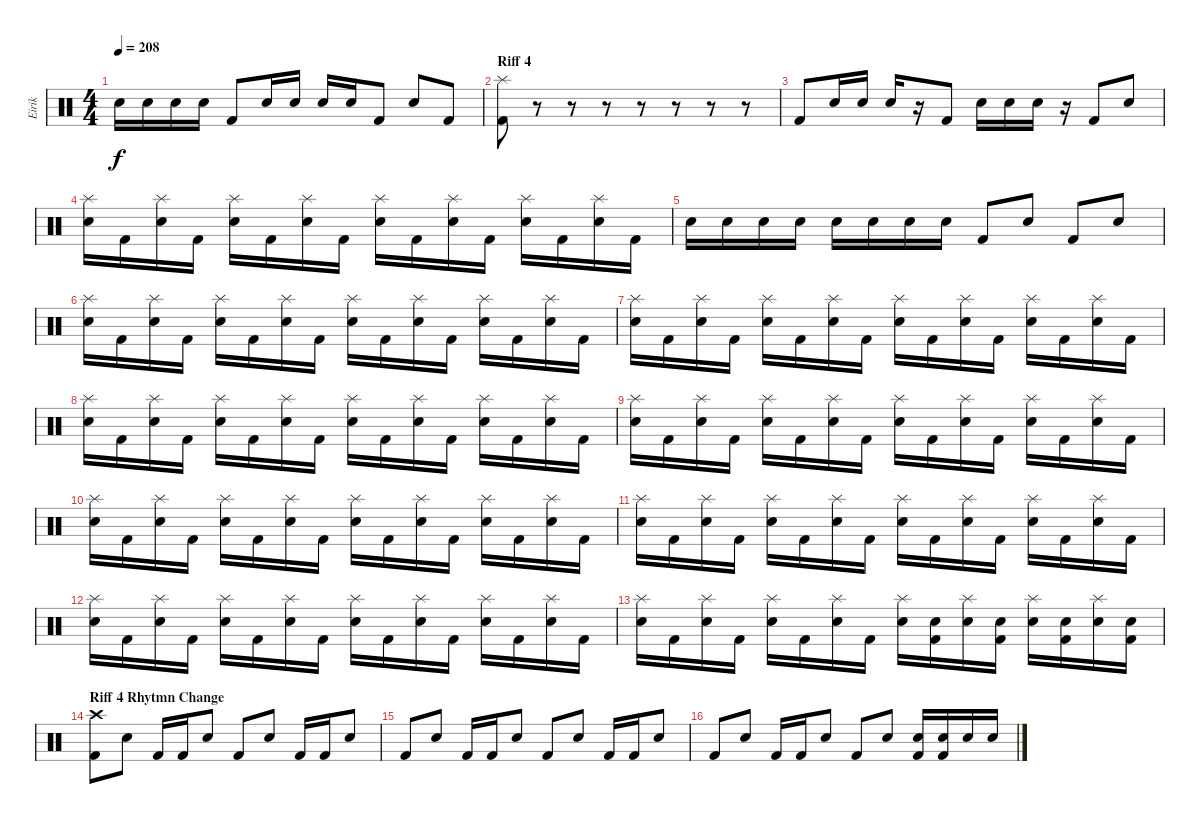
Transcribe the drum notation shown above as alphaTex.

\track ("Eirik" "Eirik") {instrument percussion}
\staff {score}
\articulation defaults
\ts (4 4)
\tempo 208
\clef neutral
\ks c "Snare (hit) 2".16{dy f} "Snare (hit) 2".16 "Snare (hit) 2".16 "Snare (hit) 2".16 "Kick (hit) 2".8 "Snare (hit) 2".16 "Snare (hit) 2".16 "Snare (hit) 2".16 "Snare (hit) 2".16 "Kick (hit) 2".8 "Snare (hit) 2".8 "Kick (hit) 2".8
|
\section ("" "Riff 4")
("Splash (hit)" "Kick (hit) 2").8 r.8 r.8 r.8 r.8 r.8 r.8 r.8 |
"Kick (hit) 2".8 "Snare (hit) 2".16 "Snare (hit) 2".16 "Snare (hit) 2".16 r.16 "Kick (hit) 2".8 "Snare (hit) 2".16 "Snare (hit) 2".16 "Snare (hit) 2".16 r.16 "Kick (hit) 2".8 "Snare (hit) 2".8 |
("Splash (hit)" "Snare (hit) 2").16 "Kick (hit) 2".16 ("Splash (hit)" "Snare (hit) 2").16 "Kick (hit) 2".16 ("Splash (hit)" "Snare (hit) 2").16 "Kick (hit) 2".16 ("Splash (hit)" "Snare (hit) 2").16 "Kick (hit) 2".16 ("Splash (hit)" "Snare (hit) 2").16 "Kick (hit) 2".16 ("Splash (hit)" "Snare (hit) 2").16 "Kick (hit) 2".16 ("Splash (hit)" "Snare (hit) 2").16 "Kick (hit) 2".16 ("Splash (hit)" "Snare (hit) 2").16 "Kick (hit) 2".16 |
"Snare (hit) 2".16 "Snare (hit) 2".16 "Snare (hit) 2".16 "Snare (hit) 2".16 "Snare (hit) 2".16 "Snare (hit) 2".16 "Snare (hit) 2".16 "Snare (hit) 2".16 "Kick (hit) 2".8 "Snare (hit) 2".8 "Kick (hit) 2".8 "Snare (hit) 2".8 |
("Splash (hit)" "Snare (hit) 2").16 "Kick (hit) 2".16 ("Splash (hit)" "Snare (hit) 2").16 "Kick (hit) 2".16 ("Splash (hit)" "Snare (hit) 2").16 "Kick (hit) 2".16 ("Splash (hit)" "Snare (hit) 2").16 "Kick (hit) 2".16 ("Splash (hit)" "Snare (hit) 2").16 "Kick (hit) 2".16 ("Splash (hit)" "Snare (hit) 2").16 "Kick (hit) 2".16 ("Splash (hit)" "Snare (hit) 2").16 "Kick (hit) 2".16 ("Splash (hit)" "Snare (hit) 2").16 "Kick (hit) 2".16 |
("Splash (hit)" "Snare (hit) 2").16 "Kick (hit) 2".16 ("Splash (hit)" "Snare (hit) 2").16 "Kick (hit) 2".16 ("Splash (hit)" "Snare (hit) 2").16 "Kick (hit) 2".16 ("Splash (hit)" "Snare (hit) 2").16 "Kick (hit) 2".16 ("Splash (hit)" "Snare (hit) 2").16 "Kick (hit) 2".16 ("Splash (hit)" "Snare (hit) 2").16 "Kick (hit) 2".16 ("Splash (hit)" "Snare (hit) 2").16 "Kick (hit) 2".16 ("Splash (hit)" "Snare (hit) 2").16 "Kick (hit) 2".16 |
("Splash (hit)" "Snare (hit) 2").16 "Kick (hit) 2".16 ("Splash (hit)" "Snare (hit) 2").16 "Kick (hit) 2".16 ("Splash (hit)" "Snare (hit) 2").16 "Kick (hit) 2".16 ("Splash (hit)" "Snare (hit) 2").16 "Kick (hit) 2".16 ("Splash (hit)" "Snare (hit) 2").16 "Kick (hit) 2".16 ("Splash (hit)" "Snare (hit) 2").16 "Kick (hit) 2".16 ("Splash (hit)" "Snare (hit) 2").16 "Kick (hit) 2".16 ("Splash (hit)" "Snare (hit) 2").16 "Kick (hit) 2".16 |
("Splash (hit)" "Snare (hit) 2").16 "Kick (hit) 2".16 ("Splash (hit)" "Snare (hit) 2").16 "Kick (hit) 2".16 ("Splash (hit)" "Snare (hit) 2").16 "Kick (hit) 2".16 ("Splash (hit)" "Snare (hit) 2").16 "Kick (hit) 2".16 ("Splash (hit)" "Snare (hit) 2").16 "Kick (hit) 2".16 ("Splash (hit)" "Snare (hit) 2").16 "Kick (hit) 2".16 ("Splash (hit)" "Snare (hit) 2").16 "Kick (hit) 2".16 ("Splash (hit)" "Snare (hit) 2").16 "Kick (hit) 2".16 |
("Splash (hit)" "Snare (hit) 2").16 "Kick (hit) 2".16 ("Splash (hit)" "Snare (hit) 2").16 "Kick (hit) 2".16 ("Splash (hit)" "Snare (hit) 2").16 "Kick (hit) 2".16 ("Splash (hit)" "Snare (hit) 2").16 "Kick (hit) 2".16 ("Splash (hit)" "Snare (hit) 2").16 "Kick (hit) 2".16 ("Splash (hit)" "Snare (hit) 2").16 "Kick (hit) 2".16 ("Splash (hit)" "Snare (hit) 2").16 "Kick (hit) 2".16 ("Splash (hit)" "Snare (hit) 2").16 "Kick (hit) 2".16 |
("Splash (hit)" "Snare (hit) 2").16 "Kick (hit) 2".16 ("Splash (hit)" "Snare (hit) 2").16 "Kick (hit) 2".16 ("Splash (hit)" "Snare (hit) 2").16 "Kick (hit) 2".16 ("Splash (hit)" "Snare (hit) 2").16 "Kick (hit) 2".16 ("Splash (hit)" "Snare (hit) 2").16 "Kick (hit) 2".16 ("Splash (hit)" "Snare (hit) 2").16 "Kick (hit) 2".16 ("Splash (hit)" "Snare (hit) 2").16 "Kick (hit) 2".16 ("Splash (hit)" "Snare (hit) 2").16 "Kick (hit) 2".16 |
("Splash (hit)" "Snare (hit) 2").16 "Kick (hit) 2".16 ("Splash (hit)" "Snare (hit) 2").16 "Kick (hit) 2".16 ("Splash (hit)" "Snare (hit) 2").16 "Kick (hit) 2".16 ("Splash (hit)" "Snare (hit) 2").16 "Kick (hit) 2".16 ("Splash (hit)" "Snare (hit) 2").16 "Kick (hit) 2".16 ("Splash (hit)" "Snare (hit) 2").16 "Kick (hit) 2".16 ("Splash (hit)" "Snare (hit) 2").16 "Kick (hit) 2".16 ("Splash (hit)" "Snare (hit) 2").16 "Kick (hit) 2".16 |
("Splash (hit)" "Snare (hit) 2").16 "Kick (hit) 2".16 ("Splash (hit)" "Snare (hit) 2").16 "Kick (hit) 2".16 ("Splash (hit)" "Snare (hit) 2").16 "Kick (hit) 2".16 ("Splash (hit)" "Snare (hit) 2").16 "Kick (hit) 2".16 ("Splash (hit)" "Snare (hit) 2").16 ("Snare (hit) 2" "Kick (hit) 2").16 ("Splash (hit)" "Snare (hit) 2").16 ("Snare (hit) 2" "Kick (hit) 2").16 ("Splash (hit)" "Snare (hit) 2").16 ("Snare (hit) 2" "Kick (hit) 2").16 ("Splash (hit)" "Snare (hit) 2").16 ("Snare (hit) 2" "Kick (hit) 2").16 |
\section ("" "Riff 4 Rhytmn Change")
("Crash high (hit)" "Kick (hit) 2").8 "Snare (hit) 2".8 "Kick (hit) 2".16 "Kick (hit) 2".16 "Snare (hit) 2".8 "Kick (hit) 2".8 "Snare (hit) 2".8 "Kick (hit) 2".16 "Kick (hit) 2".16 "Snare (hit) 2".8 |
"Kick (hit) 2".8 "Snare (hit) 2".8 "Kick (hit) 2".16 "Kick (hit) 2".16 "Snare (hit) 2".8 "Kick (hit) 2".8 "Snare (hit) 2".8 "Kick (hit) 2".16 "Kick (hit) 2".16 "Snare (hit) 2".8 |
"Kick (hit) 2".8 "Snare (hit) 2".8 "Kick (hit) 2".16 "Kick (hit) 2".16 "Snare (hit) 2".8 "Kick (hit) 2".8 "Snare (hit) 2".8 ("Snare (hit) 2" "Kick (hit) 2").16 ("Snare (hit) 2" "Kick (hit) 2").16 "Snare (hit) 2".16 "Snare (hit) 2".16
